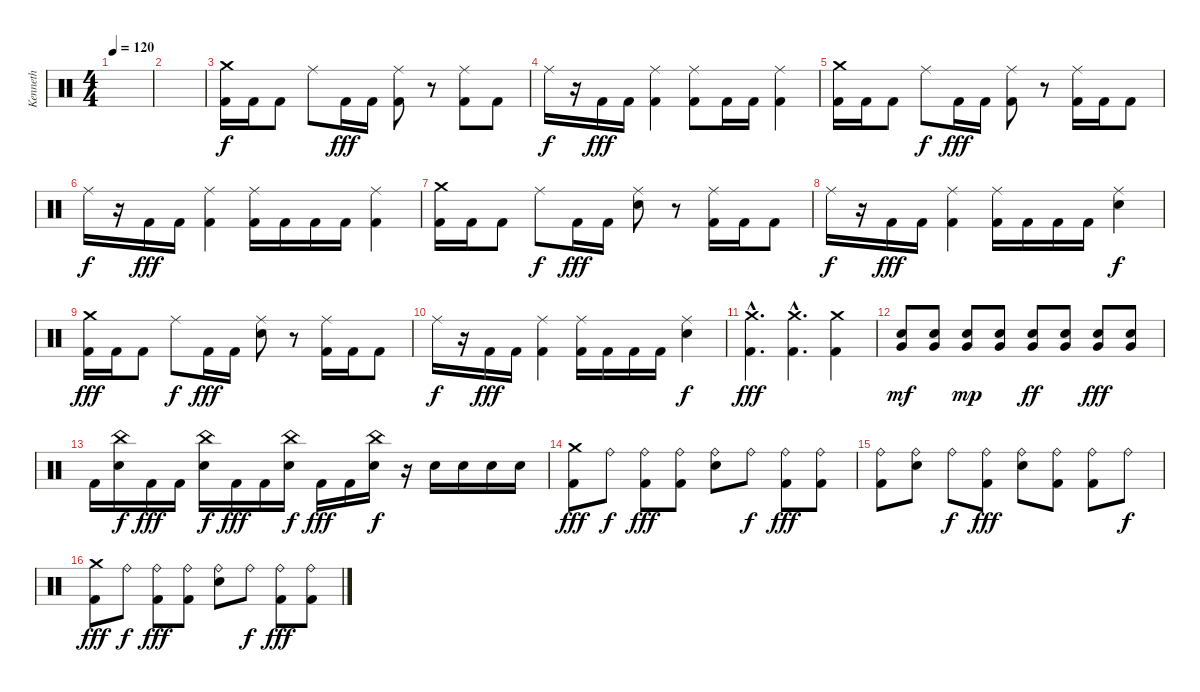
\track ("Kenneth" "Kenneth") {instrument percussion}
\staff {score}
\articulation defaults
\ts (4 4)
\tempo 120
\clef neutral
\ks c
|
|
("Crash medium (hit)" "Kick (hit) 2").16 "Kick (hit) 2".16 "Kick (hit) 2".8 "Ride (middle)".8{dy f} "Kick (hit) 2".16{dy fff} "Kick (hit) 2".16 ("Ride (middle)" "Kick (hit) 2").8 r.8 ("Ride (middle)" "Kick (hit) 2").8 "Kick (hit) 2".8 |
"Ride (middle)".16{dy f} r.16 "Kick (hit) 2".16{dy fff} "Kick (hit) 2".16 ("Ride (middle)" "Kick (hit) 2").4 ("Ride (middle)" "Kick (hit) 2").8 "Kick (hit) 2".16 "Kick (hit) 2".16 ("Ride (middle)" "Kick (hit) 2").4 |
("Crash medium (hit)" "Kick (hit) 2").16 "Kick (hit) 2".16 "Kick (hit) 2".8 "Ride (middle)".8{dy f} "Kick (hit) 2".16{dy fff} "Kick (hit) 2".16 ("Ride (middle)" "Kick (hit) 2").8 r.8 ("Ride (middle)" "Kick (hit) 2").16 "Kick (hit) 2".16 "Kick (hit) 2".8 |
"Ride (middle)".16{dy f} r.16 "Kick (hit) 2".16{dy fff} "Kick (hit) 2".16 ("Ride (middle)" "Kick (hit) 2").4 ("Ride (middle)" "Kick (hit) 2").16 "Kick (hit) 2".16 "Kick (hit) 2".16 "Kick (hit) 2".16 ("Ride (middle)" "Kick (hit) 2").4 |
("Crash medium (hit)" "Kick (hit) 2").16 "Kick (hit) 2".16 "Kick (hit) 2".8 "Ride (middle)".8{dy f} "Kick (hit) 2".16{dy fff} "Kick (hit) 2".16 ("Ride (middle)" "Snare (hit) 2").8 r.8 ("Ride (middle)" "Kick (hit) 2").16 "Kick (hit) 2".16 "Kick (hit) 2".8 |
"Ride (middle)".16{dy f} r.16 "Kick (hit) 2".16{dy fff} "Kick (hit) 2".16 ("Ride (middle)" "Kick (hit) 2").4 ("Ride (middle)" "Kick (hit) 2").16 "Kick (hit) 2".16 "Kick (hit) 2".16 "Kick (hit) 2".16 ("Ride (middle)" "Snare (hit) 2").4{dy f} |
("Crash medium (hit)" "Kick (hit) 2").16{dy fff} "Kick (hit) 2".16 "Kick (hit) 2".8 "Ride (middle)".8{dy f} "Kick (hit) 2".16{dy fff} "Kick (hit) 2".16 ("Ride (middle)" "Snare (hit) 2").8 r.8 ("Ride (middle)" "Kick (hit) 2").16 "Kick (hit) 2".16 "Kick (hit) 2".8 |
"Ride (middle)".16{dy f} r.16 "Kick (hit) 2".16{dy fff} "Kick (hit) 2".16 ("Ride (middle)" "Kick (hit) 2").4 ("Ride (middle)" "Kick (hit) 2").16 "Kick (hit) 2".16 "Kick (hit) 2".16 "Kick (hit) 2".16 ("Ride (middle)" "Snare (hit) 2").4{dy f} |
("Crash medium (hit)"{hac} "Kick (hit) 2"{hac}).4{d dy fff} ("Crash medium (hit)"{hac} "Kick (hit) 2"{hac}).4{d} ("Crash medium (hit)" "Kick (hit) 2").4 |
("Snare (hit) 2" "Very Low Tom (hit)").8{dy mf} ("Snare (hit) 2" "Very Low Tom (hit)").8 ("Snare (hit) 2" "Very Low Tom (hit)").8{dy mp} ("Snare (hit) 2" "Very Low Tom (hit)").8 ("Snare (hit) 2" "Very Low Tom (hit)").8{dy ff} ("Snare (hit) 2" "Very Low Tom (hit)").8 ("Snare (hit) 2" "Very Low Tom (hit)").8{dy fff} ("Snare (hit) 2" "Very Low Tom (hit)").8 |
"Kick (hit) 2".16 ("China (hit)" "Snare (hit) 2").16{dy f} "Kick (hit) 2".16{dy fff} "Kick (hit) 2".16 ("China (hit)" "Snare (hit) 2").16{dy f} "Kick (hit) 2".16{dy fff} "Kick (hit) 2".16 ("China (hit)" "Snare (hit) 2").16{dy f} "Kick (hit) 2".16{dy fff} "Kick (hit) 2".16 ("China (hit)" "Snare (hit) 2").16{dy f} r.16 "Snare (hit) 2".16 "Snare (hit) 2".16 "Snare (hit) 2".16 "Snare (hit) 2".16 |
("Crash medium (hit)" "Kick (hit) 2").8{dy fff} "Ride (bell)".8{dy f} ("Ride (bell)" "Kick (hit) 2").8{dy fff} ("Ride (bell)" "Kick (hit) 2").8 ("Ride (bell)" "Snare (hit) 2").8 "Ride (bell)".8{dy f} ("Ride (bell)" "Kick (hit) 2").8{dy fff} ("Ride (bell)" "Kick (hit) 2").8 |
("Ride (bell)" "Kick (hit) 2").8 ("Ride (bell)" "Snare (hit) 2").8 "Ride (bell)".8{dy f} ("Ride (bell)" "Kick (hit) 2").8{dy fff} ("Ride (bell)" "Snare (hit) 2").8 ("Ride (bell)" "Kick (hit) 2").8 ("Ride (bell)" "Kick (hit) 2").8 "Ride (bell)".8{dy f} |
("Crash medium (hit)" "Kick (hit) 2").8{dy fff} "Ride (bell)".8{dy f} ("Ride (bell)" "Kick (hit) 2").8{dy fff} ("Ride (bell)" "Kick (hit) 2").8 ("Ride (bell)" "Snare (hit) 2").8 "Ride (bell)".8{dy f} ("Ride (bell)" "Kick (hit) 2").8{dy fff} ("Ride (bell)" "Kick (hit) 2").8
